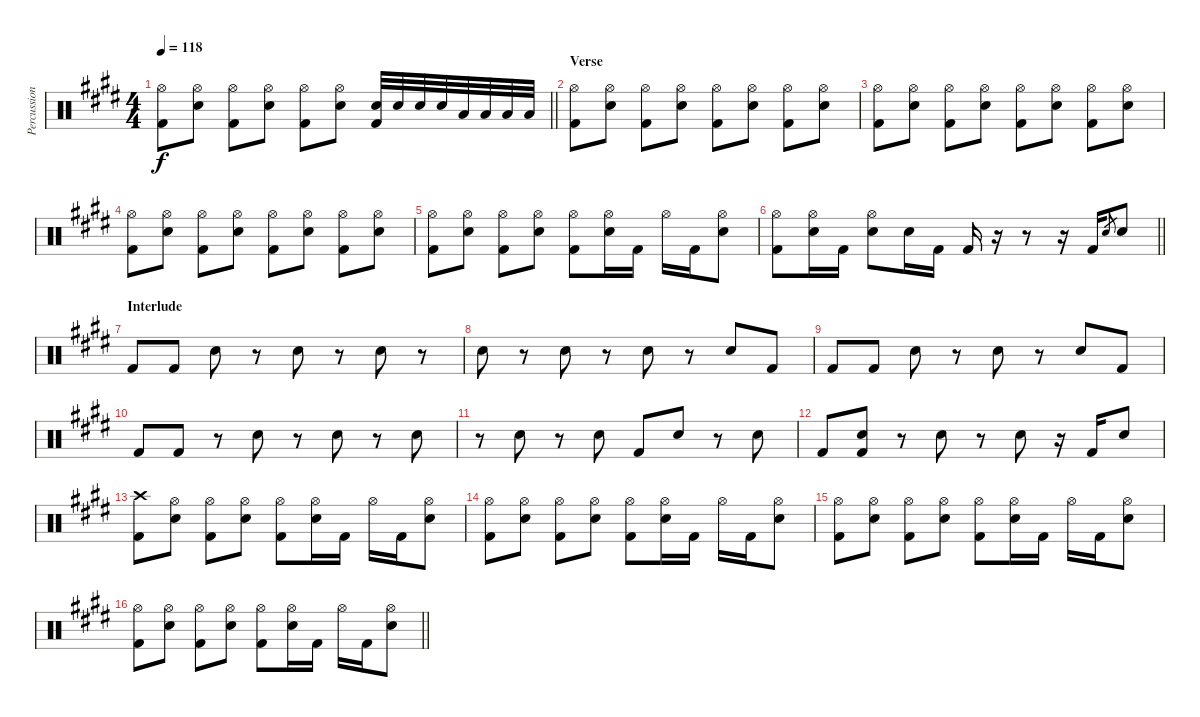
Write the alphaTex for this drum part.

\track ("Percussion" "Percussion") {instrument percussion}
\staff {score}
\articulation defaults
\ts (4 4)
\tempo 118
\clef neutral
\barLineRight lightlight
\ks e
("Hi-Hat (open)" "Kick (hit) 2").8{dy f} ("Hi-Hat (open)" "Electric Snare (hit)").8 ("Hi-Hat (open)" "Kick (hit) 2").8 ("Hi-Hat (open)" "Electric Snare (hit)").8 ("Hi-Hat (open)" "Kick (hit) 2").8 ("Hi-Hat (open)" "Electric Snare (hit)").8 ("Electric Snare (hit)" "Kick (hit) 2").32 "Electric Snare (hit)".32 "Electric Snare (hit)".32 "Electric Snare (hit)".32 "Low Tom (hit)".32 "Low Tom (hit)".32 "Low Tom (hit)".32 "Low Tom (hit)".32 |
\section ("" "Verse")
("Hi-Hat (open)" "Kick (hit) 2").8 ("Hi-Hat (open)" "Electric Snare (hit)").8 ("Hi-Hat (open)" "Kick (hit) 2").8 ("Hi-Hat (open)" "Electric Snare (hit)").8 ("Hi-Hat (open)" "Kick (hit) 2").8 ("Hi-Hat (open)" "Electric Snare (hit)").8 ("Hi-Hat (open)" "Kick (hit) 2").8 ("Hi-Hat (open)" "Electric Snare (hit)").8 |
("Hi-Hat (open)" "Kick (hit) 2").8 ("Hi-Hat (open)" "Electric Snare (hit)").8 ("Hi-Hat (open)" "Kick (hit) 2").8 ("Hi-Hat (open)" "Electric Snare (hit)").8 ("Hi-Hat (open)" "Kick (hit) 2").8 ("Hi-Hat (open)" "Electric Snare (hit)").8 ("Hi-Hat (open)" "Kick (hit) 2").8 ("Hi-Hat (open)" "Electric Snare (hit)").8 |
("Hi-Hat (open)" "Kick (hit) 2").8 ("Hi-Hat (open)" "Electric Snare (hit)").8 ("Hi-Hat (open)" "Kick (hit) 2").8 ("Hi-Hat (open)" "Electric Snare (hit)").8 ("Hi-Hat (open)" "Kick (hit) 2").8 ("Hi-Hat (open)" "Electric Snare (hit)").8 ("Hi-Hat (open)" "Kick (hit) 2").8 ("Hi-Hat (open)" "Electric Snare (hit)").8 |
("Hi-Hat (open)" "Kick (hit) 2").8 ("Hi-Hat (open)" "Electric Snare (hit)").8 ("Hi-Hat (open)" "Kick (hit) 2").8 ("Hi-Hat (open)" "Electric Snare (hit)").8 ("Hi-Hat (open)" "Kick (hit) 2").8 ("Hi-Hat (open)" "Electric Snare (hit)").16 "Kick (hit) 2".16 "Hi-Hat (open)".16 "Kick (hit) 2".16 ("Hi-Hat (open)" "Electric Snare (hit)").8 |
\barLineRight lightlight
("Hi-Hat (open)" "Kick (hit) 2").8 ("Hi-Hat (open)" "Electric Snare (hit)").16 "Kick (hit) 2".16 ("Hi-Hat (open)" "Electric Snare (hit)").8 "Electric Snare (hit)".16 "Kick (hit) 2".16 "Kick (hit) 2".16 r.16 r.8 r.16 "Kick (hit) 2".16 "Electric Snare (hit)".8{gr} "Electric Snare (hit)".8 |
\section ("" "Interlude")
"Kick (hit) 2".8 "Kick (hit) 2".8 "Electric Snare (hit)".8 r.8 "Electric Snare (hit)".8 r.8 "Electric Snare (hit)".8 r.8 |
"Electric Snare (hit)".8 r.8 "Electric Snare (hit)".8 r.8 "Electric Snare (hit)".8 r.8 "Electric Snare (hit)".8 "Kick (hit) 2".8 |
"Kick (hit) 2".8 "Kick (hit) 2".8 "Electric Snare (hit)".8 r.8 "Electric Snare (hit)".8 r.8 "Electric Snare (hit)".8 "Kick (hit) 2".8 |
"Kick (hit) 2".8 "Kick (hit) 2".8 r.8 "Electric Snare (hit)".8 r.8 "Electric Snare (hit)".8 r.8 "Electric Snare (hit)".8 |
r.8 "Electric Snare (hit)".8 r.8 "Electric Snare (hit)".8 "Kick (hit) 2".8 "Electric Snare (hit)".8 r.8 "Electric Snare (hit)".8 |
"Kick (hit) 2".8 ("Electric Snare (hit)" "Kick (hit) 2").8 r.8 "Electric Snare (hit)".8 r.8 "Electric Snare (hit)".8 r.16 "Kick (hit) 2".16 "Electric Snare (hit)".8 |
("Crash high (hit)" "Kick (hit) 2").8 ("Hi-Hat (open)" "Electric Snare (hit)").8 ("Hi-Hat (open)" "Kick (hit) 2").8 ("Hi-Hat (open)" "Electric Snare (hit)").8 ("Hi-Hat (open)" "Kick (hit) 2").8 ("Hi-Hat (open)" "Electric Snare (hit)").16 "Kick (hit) 2".16 "Hi-Hat (open)".16 "Kick (hit) 2".16 ("Hi-Hat (open)" "Electric Snare (hit)").8 |
("Hi-Hat (open)" "Kick (hit) 2").8 ("Hi-Hat (open)" "Electric Snare (hit)").8 ("Hi-Hat (open)" "Kick (hit) 2").8 ("Hi-Hat (open)" "Electric Snare (hit)").8 ("Hi-Hat (open)" "Kick (hit) 2").8 ("Hi-Hat (open)" "Electric Snare (hit)").16 "Kick (hit) 2".16 "Hi-Hat (open)".16 "Kick (hit) 2".16 ("Hi-Hat (open)" "Electric Snare (hit)").8 |
("Hi-Hat (open)" "Kick (hit) 2").8 ("Hi-Hat (open)" "Electric Snare (hit)").8 ("Hi-Hat (open)" "Kick (hit) 2").8 ("Hi-Hat (open)" "Electric Snare (hit)").8 ("Hi-Hat (open)" "Kick (hit) 2").8 ("Hi-Hat (open)" "Electric Snare (hit)").16 "Kick (hit) 2".16 "Hi-Hat (open)".16 "Kick (hit) 2".16 ("Hi-Hat (open)" "Electric Snare (hit)").8 |
\barLineRight lightlight
("Hi-Hat (open)" "Kick (hit) 2").8 ("Hi-Hat (open)" "Electric Snare (hit)").8 ("Hi-Hat (open)" "Kick (hit) 2").8 ("Hi-Hat (open)" "Electric Snare (hit)").8 ("Hi-Hat (open)" "Kick (hit) 2").8 ("Hi-Hat (open)" "Electric Snare (hit)").16 "Kick (hit) 2".16 "Hi-Hat (open)".16 "Kick (hit) 2".16 ("Hi-Hat (open)" "Electric Snare (hit)").8
